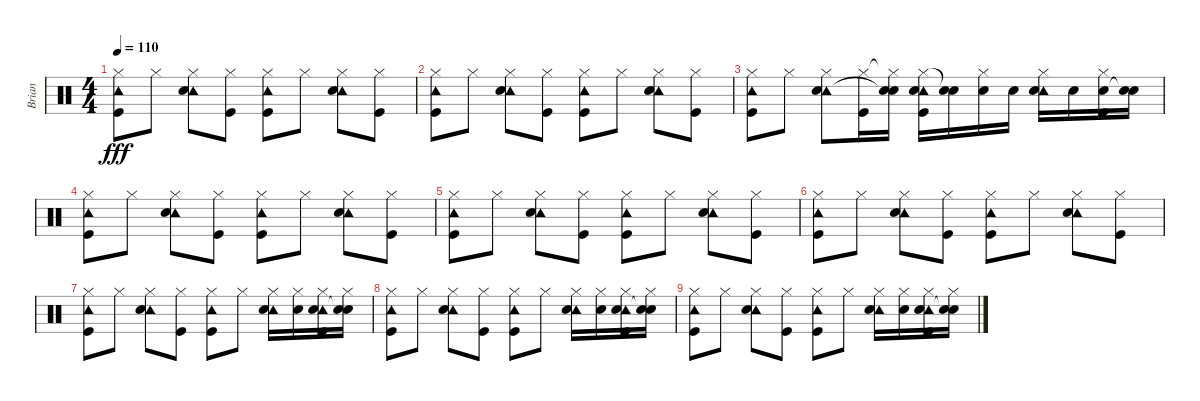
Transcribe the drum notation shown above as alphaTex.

\track ("Brian" "Brian") {instrument percussion}
\staff {score}
\articulation defaults
\ts (4 4)
\tempo 110
\clef neutral
\ks c
("Tambourine (hit)" "Hi-Hat (closed)" "Kick (hit)").8{dy fff} "Hi-Hat (closed)".8 ("Tambourine (hit)" "Hi-Hat (closed)" "Electric Snare (hit)").8 ("Hi-Hat (closed)" "Kick (hit)").8 ("Tambourine (hit)" "Hi-Hat (closed)" "Kick (hit)").8 "Hi-Hat (closed)".8 ("Tambourine (hit)" "Hi-Hat (closed)" "Electric Snare (hit)").8 ("Hi-Hat (closed)" "Kick (hit)").8 |
("Tambourine (hit)" "Hi-Hat (closed)" "Kick (hit)").8 "Hi-Hat (closed)".8 ("Tambourine (hit)" "Hi-Hat (closed)" "Electric Snare (hit)").8 ("Hi-Hat (closed)" "Kick (hit)").8 ("Tambourine (hit)" "Hi-Hat (closed)" "Kick (hit)").8 "Hi-Hat (closed)".8 ("Tambourine (hit)" "Hi-Hat (closed)" "Electric Snare (hit)").8 ("Hi-Hat (closed)" "Kick (hit)").8 |
("Tambourine (hit)" "Hi-Hat (closed)" "Kick (hit)").8 "Hi-Hat (closed)".8 ("Tambourine (hit)" "Hi-Hat (closed)" "Electric Snare (hit)").8 ("Hi-Hat (closed)" "Kick (hit)").16 ("Hi-Hat (closed)"{t} "Electric Snare (hit)" "Snare (hit)"{t}).16 ("Tambourine (hit)" "Hi-Hat (closed)" "Electric Snare (hit)" "Kick (hit)").16 ("Electric Snare (hit)" "Snare (hit)"{t}).16 ("Hi-Hat (closed)" "Electric Snare (hit)").16 "Electric Snare (hit)".16 ("Tambourine (hit)" "Hi-Hat (closed)" "Electric Snare (hit)").16 "Electric Snare (hit)".16 ("Hi-Hat (closed)" "Electric Snare (hit)" "Kick (hit)").16 ("Electric Snare (hit)" "Snare (hit)"{t}).16 |
("Tambourine (hit)" "Hi-Hat (closed)" "Kick (hit)").8 "Hi-Hat (closed)".8 ("Tambourine (hit)" "Hi-Hat (closed)" "Electric Snare (hit)").8 ("Hi-Hat (closed)" "Kick (hit)").8 ("Tambourine (hit)" "Hi-Hat (closed)" "Kick (hit)").8 "Hi-Hat (closed)".8 ("Tambourine (hit)" "Hi-Hat (closed)" "Electric Snare (hit)").8 ("Hi-Hat (closed)" "Kick (hit)").8 |
("Tambourine (hit)" "Hi-Hat (closed)" "Kick (hit)").8 "Hi-Hat (closed)".8 ("Tambourine (hit)" "Hi-Hat (closed)" "Electric Snare (hit)").8 ("Hi-Hat (closed)" "Kick (hit)").8 ("Tambourine (hit)" "Hi-Hat (closed)" "Kick (hit)").8 "Hi-Hat (closed)".8 ("Tambourine (hit)" "Hi-Hat (closed)" "Electric Snare (hit)").8 ("Hi-Hat (closed)" "Kick (hit)").8 |
("Tambourine (hit)" "Hi-Hat (closed)" "Kick (hit)").8 "Hi-Hat (closed)".8 ("Tambourine (hit)" "Hi-Hat (closed)" "Electric Snare (hit)").8 ("Hi-Hat (closed)" "Kick (hit)").8 ("Tambourine (hit)" "Hi-Hat (closed)" "Kick (hit)").8 "Hi-Hat (closed)".8 ("Tambourine (hit)" "Hi-Hat (closed)" "Electric Snare (hit)").8 ("Hi-Hat (closed)" "Kick (hit)").8 |
("Tambourine (hit)" "Hi-Hat (closed)" "Kick (hit)").8 "Hi-Hat (closed)".8 ("Tambourine (hit)" "Hi-Hat (closed)" "Electric Snare (hit)").8 ("Hi-Hat (closed)" "Kick (hit)").8 ("Tambourine (hit)" "Hi-Hat (closed)" "Kick (hit)").8 "Hi-Hat (closed)".8 ("Tambourine (hit)" "Hi-Hat (closed)" "Electric Snare (hit)").16 ("Hi-Hat (closed)" "Electric Snare (hit)").16 ("Tambourine (hit)" "Hi-Hat (closed)" "Electric Snare (hit)" "Kick (hit)").16 ("Hi-Hat (closed)" "Electric Snare (hit)" "Snare (hit)"{t}).16 |
("Tambourine (hit)" "Hi-Hat (closed)" "Kick (hit)").8 "Hi-Hat (closed)".8 ("Tambourine (hit)" "Hi-Hat (closed)" "Electric Snare (hit)").8 ("Hi-Hat (closed)" "Kick (hit)").8 ("Tambourine (hit)" "Hi-Hat (closed)" "Kick (hit)").8 "Hi-Hat (closed)".8 ("Tambourine (hit)" "Hi-Hat (closed)" "Electric Snare (hit)").16 ("Hi-Hat (closed)" "Electric Snare (hit)").16 ("Tambourine (hit)" "Hi-Hat (closed)" "Electric Snare (hit)" "Kick (hit)").16 ("Hi-Hat (closed)" "Electric Snare (hit)" "Snare (hit)"{t}).16 |
("Tambourine (hit)" "Hi-Hat (closed)" "Kick (hit)").8 "Hi-Hat (closed)".8 ("Tambourine (hit)" "Hi-Hat (closed)" "Electric Snare (hit)").8 ("Hi-Hat (closed)" "Kick (hit)").8 ("Tambourine (hit)" "Hi-Hat (closed)" "Kick (hit)").8 "Hi-Hat (closed)".8 ("Tambourine (hit)" "Hi-Hat (closed)" "Electric Snare (hit)").16 ("Hi-Hat (closed)" "Electric Snare (hit)").16 ("Tambourine (hit)" "Hi-Hat (closed)" "Electric Snare (hit)" "Kick (hit)").16 ("Hi-Hat (closed)" "Electric Snare (hit)" "Snare (hit)"{t}).16
